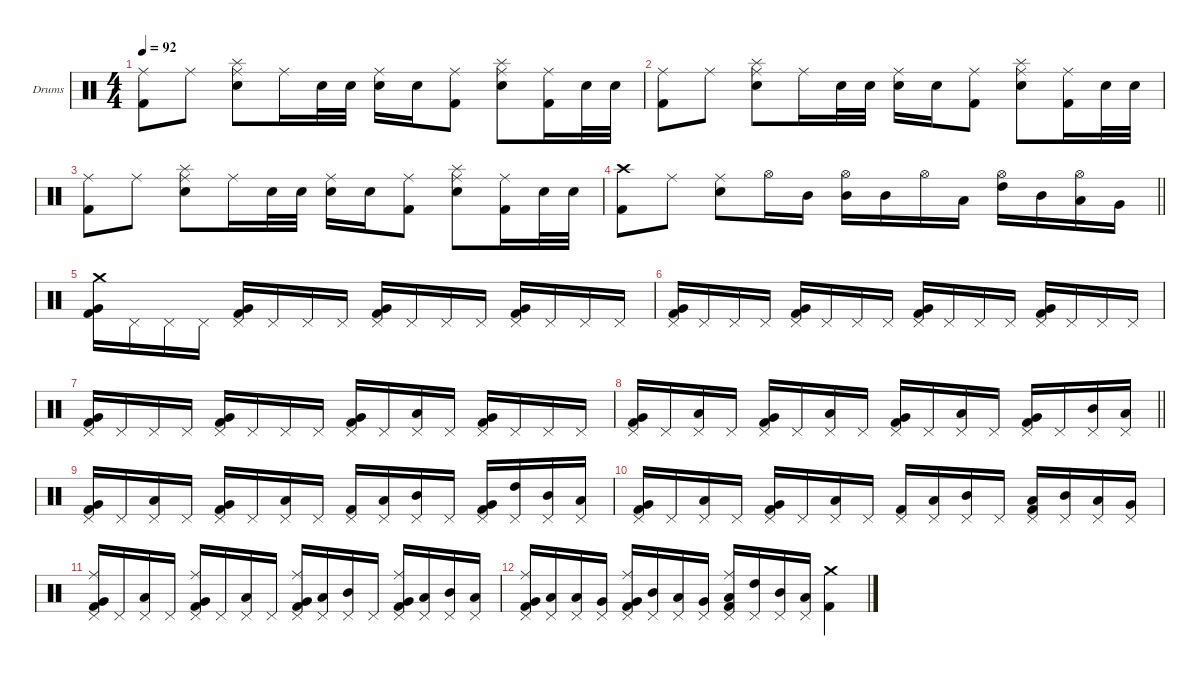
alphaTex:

\hideDynamics
\bracketExtendMode nobrackets
\firstSystemTrackNameOrientation horizontal
\otherSystemsTrackNameOrientation horizontal
\track ("Drumkit" "Drums") {instrument percussion}
\staff {score}
\articulation defaults
\ts (4 4)
\tempo 92
\clef neutral
\ks aminor
("Ride (middle)" "Kick (hit) 2").8{dy f} "Ride (middle)".8{dy mf} ("Ride (middle)" "Splash (hit)" "Snare (hit) 2").8{dy f} "Ride (middle)".16{dy mf} "Snare (hit) 2".32{dy pp} "Snare (hit) 2".32{dy p} ("Ride (middle)" "Snare (hit) 2").16{dy f} "Snare (hit) 2".16{dy mp} ("Ride (middle)" "Kick (hit) 2").8{dy mf} ("Ride (middle)" "Splash (hit)" "Snare (hit) 2").8{dy f} ("Ride (middle)" "Kick (hit) 2").16{dy mf} "Snare (hit) 2".32{dy ppp} "Snare (hit) 2".32{dy pp} |
("Ride (middle)" "Kick (hit) 2").8{dy f} "Ride (middle)".8{dy mf} ("Ride (middle)" "Splash (hit)" "Snare (hit) 2").8{dy f} "Ride (middle)".16{dy mf} "Snare (hit) 2".32{dy ppp} "Snare (hit) 2".32{dy pp} ("Ride (middle)" "Snare (hit) 2").16{dy f} "Snare (hit) 2".16{dy mf} ("Ride (middle)" "Kick (hit) 2").8 ("Ride (middle)" "Splash (hit)" "Snare (hit) 2").8{dy f} ("Ride (middle)" "Kick (hit) 2").16{dy mf} "Snare (hit) 2".32{dy ppp} "Snare (hit) 2".32{dy pp} |
("Ride (middle)" "Kick (hit) 2").8{dy f} "Ride (middle)".8{dy mf} ("Ride (middle)" "Splash (hit)" "Snare (hit) 2").8{dy f} "Ride (middle)".16{dy mf} "Snare (hit) 2".32{dy ppp} "Snare (hit) 2".32{dy pp} ("Ride (middle)" "Snare (hit) 2").16{dy f} "Snare (hit) 2".16{dy mf} ("Ride (middle)" "Kick (hit) 2").8 ("Ride (middle)" "Splash (hit)" "Snare (hit) 2").8{dy f} ("Ride (middle)" "Kick (hit) 2").16{dy mf} "Snare (hit) 2".32{dy ppp} "Snare (hit) 2".32{dy pp} |
\barLineRight lightlight
("Crash high (hit)" "Kick (hit) 2").8{dy mp} "Ride (middle)".8{dy f} ("Ride (middle)" "Snare (hit) 2").8 "Hi-Hat (open)".16{dy p} "Mid Tom (hit)".16 ("Hi-Hat (open)" "Mid Tom (hit)").16{dy mp} "Mid Tom (hit)".16{dy p} "Hi-Hat (open)".16 "Low Tom (hit)".16 ("Hi-Hat (open)" "High Tom (hit)").16 "Mid Tom (hit)".16 ("Hi-Hat (open)" "Low Tom (hit)").16{dy pp} "Very Low Tom (hit)".16{dy p} |
("Crash medium (hit)" "Very Low Tom (hit)" "Kick (hit) 2").16{dy f} "Pedal Hi-Hat (hit)".16{dy p} "Pedal Hi-Hat (hit)".16 "Pedal Hi-Hat (hit)".16 ("Pedal Hi-Hat (hit)" "Very Low Tom (hit)" "Kick (hit) 2").16 "Pedal Hi-Hat (hit)".16 "Pedal Hi-Hat (hit)".16 "Pedal Hi-Hat (hit)".16 ("Pedal Hi-Hat (hit)" "Very Low Tom (hit)" "Kick (hit) 2").16 "Pedal Hi-Hat (hit)".16 "Pedal Hi-Hat (hit)".16 "Pedal Hi-Hat (hit)".16 ("Pedal Hi-Hat (hit)" "Very Low Tom (hit)" "Kick (hit) 2").16 "Pedal Hi-Hat (hit)".16 "Pedal Hi-Hat (hit)".16 "Pedal Hi-Hat (hit)".16 |
("Pedal Hi-Hat (hit)" "Very Low Tom (hit)" "Kick (hit) 2").16 "Pedal Hi-Hat (hit)".16 "Pedal Hi-Hat (hit)".16 "Pedal Hi-Hat (hit)".16 ("Pedal Hi-Hat (hit)" "Very Low Tom (hit)" "Kick (hit) 2").16 "Pedal Hi-Hat (hit)".16 "Pedal Hi-Hat (hit)".16 "Pedal Hi-Hat (hit)".16 ("Pedal Hi-Hat (hit)" "Very Low Tom (hit)" "Kick (hit) 2").16 "Pedal Hi-Hat (hit)".16 "Pedal Hi-Hat (hit)".16 "Pedal Hi-Hat (hit)".16 ("Pedal Hi-Hat (hit)" "Very Low Tom (hit)" "Kick (hit) 2").16 "Pedal Hi-Hat (hit)".16 "Pedal Hi-Hat (hit)".16 "Pedal Hi-Hat (hit)".16 |
("Pedal Hi-Hat (hit)" "Very Low Tom (hit)" "Kick (hit) 2").16 "Pedal Hi-Hat (hit)".16 "Pedal Hi-Hat (hit)".16 "Pedal Hi-Hat (hit)".16 ("Pedal Hi-Hat (hit)" "Very Low Tom (hit)" "Kick (hit) 2").16 "Pedal Hi-Hat (hit)".16 "Pedal Hi-Hat (hit)".16 "Pedal Hi-Hat (hit)".16 ("Pedal Hi-Hat (hit)" "Very Low Tom (hit)" "Kick (hit) 2").16 "Pedal Hi-Hat (hit)".16 ("Pedal Hi-Hat (hit)" "Low Tom (hit)").16 "Pedal Hi-Hat (hit)".16 ("Pedal Hi-Hat (hit)" "Very Low Tom (hit)" "Kick (hit) 2").16 "Pedal Hi-Hat (hit)".16 "Pedal Hi-Hat (hit)".16 "Pedal Hi-Hat (hit)".16 |
\barLineRight lightlight
("Pedal Hi-Hat (hit)" "Very Low Tom (hit)" "Kick (hit) 2").16 "Pedal Hi-Hat (hit)".16 ("Pedal Hi-Hat (hit)" "Low Tom (hit)").16 "Pedal Hi-Hat (hit)".16 ("Pedal Hi-Hat (hit)" "Very Low Tom (hit)" "Kick (hit) 2").16 "Pedal Hi-Hat (hit)".16 ("Pedal Hi-Hat (hit)" "Low Tom (hit)").16 "Pedal Hi-Hat (hit)".16 ("Pedal Hi-Hat (hit)" "Very Low Tom (hit)" "Kick (hit) 2").16 "Pedal Hi-Hat (hit)".16 ("Pedal Hi-Hat (hit)" "Low Tom (hit)").16 "Pedal Hi-Hat (hit)".16 ("Pedal Hi-Hat (hit)" "Very Low Tom (hit)" "Kick (hit) 2").16 "Pedal Hi-Hat (hit)".16 ("Pedal Hi-Hat (hit)" "Mid Tom (hit)").16 ("Pedal Hi-Hat (hit)" "Low Tom (hit)").16 |
("Pedal Hi-Hat (hit)" "Very Low Tom (hit)" "Kick (hit) 2").16 "Pedal Hi-Hat (hit)".16 ("Pedal Hi-Hat (hit)" "Low Tom (hit)").16 "Pedal Hi-Hat (hit)".16 ("Pedal Hi-Hat (hit)" "Very Low Tom (hit)" "Kick (hit) 2").16 "Pedal Hi-Hat (hit)".16 ("Pedal Hi-Hat (hit)" "Low Tom (hit)").16 "Pedal Hi-Hat (hit)".16 ("Pedal Hi-Hat (hit)" "Kick (hit) 2").16 ("Pedal Hi-Hat (hit)" "Low Tom (hit)").16 ("Pedal Hi-Hat (hit)" "Mid Tom (hit)").16 "Pedal Hi-Hat (hit)".16 ("Pedal Hi-Hat (hit)" "Very Low Tom (hit)" "Kick (hit) 2").16 ("Pedal Hi-Hat (hit)" "High Tom (hit)").16 ("Pedal Hi-Hat (hit)" "Mid Tom (hit)").16 ("Pedal Hi-Hat (hit)" "Low Tom (hit)").16 |
("Pedal Hi-Hat (hit)" "Very Low Tom (hit)" "Kick (hit) 2").16 "Pedal Hi-Hat (hit)".16 ("Pedal Hi-Hat (hit)" "Low Tom (hit)").16 "Pedal Hi-Hat (hit)".16 ("Pedal Hi-Hat (hit)" "Very Low Tom (hit)" "Kick (hit) 2").16 "Pedal Hi-Hat (hit)".16 ("Pedal Hi-Hat (hit)" "Low Tom (hit)").16 "Pedal Hi-Hat (hit)".16 ("Pedal Hi-Hat (hit)" "Kick (hit) 2").16 ("Pedal Hi-Hat (hit)" "Low Tom (hit)").16 ("Pedal Hi-Hat (hit)" "Mid Tom (hit)").16 "Pedal Hi-Hat (hit)".16 ("Pedal Hi-Hat (hit)" "Low Tom (hit)" "Kick (hit) 2").16 ("Pedal Hi-Hat (hit)" "Mid Tom (hit)").16 ("Pedal Hi-Hat (hit)" "Low Tom (hit)").16 ("Pedal Hi-Hat (hit)" "Very Low Tom (hit)").16 |
("Pedal Hi-Hat (hit)" "Ride (middle)" "Very Low Tom (hit)" "Kick (hit) 2").16 "Pedal Hi-Hat (hit)".16 ("Pedal Hi-Hat (hit)" "Low Tom (hit)").16 "Pedal Hi-Hat (hit)".16 ("Pedal Hi-Hat (hit)" "Ride (middle)" "Very Low Tom (hit)" "Kick (hit) 2").16 "Pedal Hi-Hat (hit)".16 ("Pedal Hi-Hat (hit)" "Low Tom (hit)").16 "Pedal Hi-Hat (hit)".16 ("Pedal Hi-Hat (hit)" "Ride (middle)" "Very Low Tom (hit)" "Kick (hit) 2").16 ("Pedal Hi-Hat (hit)" "Low Tom (hit)").16 ("Pedal Hi-Hat (hit)" "Mid Tom (hit)").16 "Pedal Hi-Hat (hit)".16 ("Pedal Hi-Hat (hit)" "Ride (middle)" "Very Low Tom (hit)" "Kick (hit) 2").16 ("Pedal Hi-Hat (hit)" "Low Tom (hit)").16 ("Pedal Hi-Hat (hit)" "Mid Tom (hit)").16 ("Pedal Hi-Hat (hit)" "Low Tom (hit)").16 |
("Pedal Hi-Hat (hit)" "Ride (middle)" "Very Low Tom (hit)" "Kick (hit) 2").16 ("Pedal Hi-Hat (hit)" "Low Tom (hit)").16 ("Pedal Hi-Hat (hit)" "Low Tom (hit)").16 ("Pedal Hi-Hat (hit)" "Very Low Tom (hit)").16 ("Pedal Hi-Hat (hit)" "Ride (middle)" "Very Low Tom (hit)" "Kick (hit) 2").16 ("Pedal Hi-Hat (hit)" "Mid Tom (hit)").16 ("Pedal Hi-Hat (hit)" "Low Tom (hit)").16 ("Pedal Hi-Hat (hit)" "Very Low Tom (hit)").16 ("Pedal Hi-Hat (hit)" "Ride (middle)" "Low Tom (hit)" "Kick (hit) 2").16 ("Pedal Hi-Hat (hit)" "High Tom (hit)").16 ("Pedal Hi-Hat (hit)" "Mid Tom (hit)").16 ("Pedal Hi-Hat (hit)" "Low Tom (hit)").16 ("Crash medium (hit)" "Kick (hit) 2").4{dy f}
